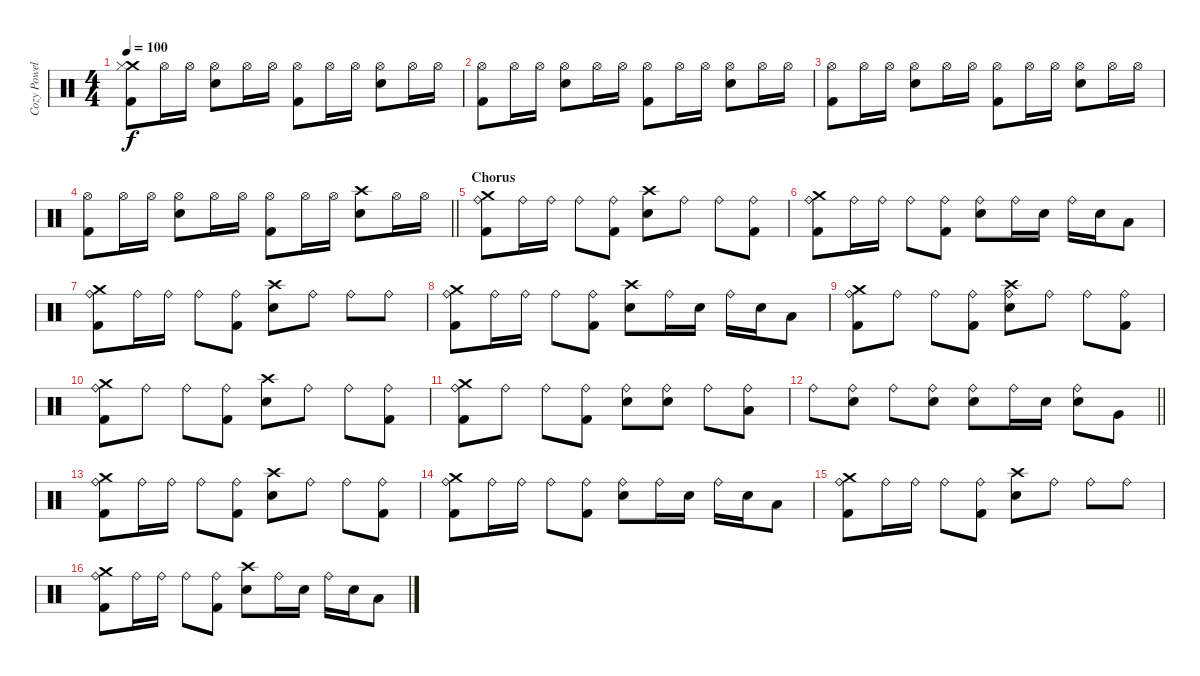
\track ("Cozy Powell " "Cozy Powel") {instrument percussion}
\staff {score}
\articulation defaults
\ts (4 4)
\tempo 100
\clef neutral
\ks c
("Crash medium (hit)" "Hi-Hat (closed)" "Kick (hit) 2").8{dy f} "Hi-Hat (open)".16 "Hi-Hat (open)".16 ("Hi-Hat (open)" "Snare (hit) 2").8 "Hi-Hat (open)".16 "Hi-Hat (open)".16 ("Hi-Hat (open)" "Kick (hit) 2").8 "Hi-Hat (open)".16 "Hi-Hat (open)".16 ("Hi-Hat (open)" "Snare (hit) 2").8 "Hi-Hat (open)".16 "Hi-Hat (open)".16 |
("Hi-Hat (open)" "Kick (hit) 2").8 "Hi-Hat (open)".16 "Hi-Hat (open)".16 ("Hi-Hat (open)" "Snare (hit) 2").8 "Hi-Hat (open)".16 "Hi-Hat (open)".16 ("Hi-Hat (open)" "Kick (hit) 2").8 "Hi-Hat (open)".16 "Hi-Hat (open)".16 ("Hi-Hat (open)" "Snare (hit) 2").8 "Hi-Hat (open)".16 "Hi-Hat (open)".16 |
("Hi-Hat (open)" "Kick (hit) 2").8 "Hi-Hat (open)".16 "Hi-Hat (open)".16 ("Hi-Hat (open)" "Snare (hit) 2").8 "Hi-Hat (open)".16 "Hi-Hat (open)".16 ("Hi-Hat (open)" "Kick (hit) 2").8 "Hi-Hat (open)".16 "Hi-Hat (open)".16 ("Hi-Hat (open)" "Snare (hit) 2").8 "Hi-Hat (open)".16 "Hi-Hat (open)".16 |
\barLineRight lightlight
("Hi-Hat (open)" "Kick (hit) 2").8 "Hi-Hat (open)".16 "Hi-Hat (open)".16 ("Hi-Hat (open)" "Snare (hit) 2").8 "Hi-Hat (open)".16 "Hi-Hat (open)".16 ("Hi-Hat (open)" "Kick (hit) 2").8 "Hi-Hat (open)".16 "Hi-Hat (open)".16 ("Crash high (hit)" "Snare (hit) 2").8 "Hi-Hat (open)".16 "Hi-Hat (open)".16 |
\section ("" "Chorus")
("Crash medium (hit)" "Ride (bell)" "Kick (hit) 2").8 "Ride (bell)".16 "Ride (bell)".16 "Ride (bell)".8 ("Ride (bell)" "Kick (hit) 2").8 ("Crash high (hit)" "Snare (hit) 2").8 "Ride (bell)".8 "Ride (bell)".8 ("Ride (bell)" "Kick (hit) 2").8 |
("Crash medium (hit)" "Ride (bell)" "Kick (hit) 2").8 "Ride (bell)".16 "Ride (bell)".16 "Ride (bell)".8 ("Ride (bell)" "Kick (hit) 2").8 ("Ride (bell)" "Snare (hit) 2").8 "Ride (bell)".16 "Snare (hit) 2".16 "Ride (bell)".16 "Snare (hit) 2".16 "Low Tom (hit)".8 |
("Crash medium (hit)" "Ride (bell)" "Kick (hit) 2").8 "Ride (bell)".16 "Ride (bell)".16 "Ride (bell)".8 ("Ride (bell)" "Kick (hit) 2").8 ("Crash high (hit)" "Snare (hit) 2").8 "Ride (bell)".8 "Ride (bell)".8 "Ride (bell)".8 |
("Crash medium (hit)" "Ride (bell)" "Kick (hit) 2").8 "Ride (bell)".16 "Ride (bell)".16 "Ride (bell)".8 ("Ride (bell)" "Kick (hit) 2").8 ("Crash high (hit)" "Snare (hit) 2").8 "Ride (bell)".16 "Snare (hit) 2".16 "Ride (bell)".16 "Snare (hit) 2".16 "Low Tom (hit)".8 |
("Crash medium (hit)" "Ride (bell)" "Kick (hit) 2").8 "Ride (bell)".8 "Ride (bell)".8 ("Ride (bell)" "Kick (hit) 2").8 ("Crash high (hit)" "Ride (bell)" "Snare (hit) 2").8 "Ride (bell)".8 "Ride (bell)".8 ("Ride (bell)" "Kick (hit) 2").8 |
("Crash medium (hit)" "Ride (bell)" "Kick (hit) 2").8 "Ride (bell)".8 "Ride (bell)".8 ("Ride (bell)" "Kick (hit) 2").8 ("Crash high (hit)" "Snare (hit) 2").8 "Ride (bell)".8 "Ride (bell)".8 ("Ride (bell)" "Kick (hit) 2").8 |
("Crash medium (hit)" "Ride (bell)" "Kick (hit) 2").8 "Ride (bell)".8 "Ride (bell)".8 ("Ride (bell)" "Kick (hit) 2").8 ("Ride (bell)" "Snare (hit) 2").8 ("Ride (bell)" "Snare (hit) 2").8 "Ride (bell)".8 ("Ride (bell)" "Low Tom (hit)").8 |
\barLineRight lightlight "Ride (bell)".8
("Ride (bell)" "Snare (hit) 2").8 "Ride (bell)".8 ("Ride (bell)" "Snare (hit) 2").8 ("Ride (bell)" "Snare (hit) 2").8 "Ride (bell)".16 "Snare (hit) 2".16 ("Ride (bell)" "Snare (hit) 2").8 "Very Low Tom (hit)".8 |
("Crash medium (hit)" "Ride (bell)" "Kick (hit) 2").8 "Ride (bell)".16 "Ride (bell)".16 "Ride (bell)".8 ("Ride (bell)" "Kick (hit) 2").8 ("Crash high (hit)" "Snare (hit) 2").8 "Ride (bell)".8 "Ride (bell)".8 ("Ride (bell)" "Kick (hit) 2").8 |
("Crash medium (hit)" "Ride (bell)" "Kick (hit) 2").8 "Ride (bell)".16 "Ride (bell)".16 "Ride (bell)".8 ("Ride (bell)" "Kick (hit) 2").8 ("Ride (bell)" "Snare (hit) 2").8 "Ride (bell)".16 "Snare (hit) 2".16 "Ride (bell)".16 "Snare (hit) 2".16 "Low Tom (hit)".8 |
("Crash medium (hit)" "Ride (bell)" "Kick (hit) 2").8 "Ride (bell)".16 "Ride (bell)".16 "Ride (bell)".8 ("Ride (bell)" "Kick (hit) 2").8 ("Crash high (hit)" "Snare (hit) 2").8 "Ride (bell)".8 "Ride (bell)".8 "Ride (bell)".8 |
("Crash medium (hit)" "Ride (bell)" "Kick (hit) 2").8 "Ride (bell)".16 "Ride (bell)".16 "Ride (bell)".8 ("Ride (bell)" "Kick (hit) 2").8 ("Crash high (hit)" "Snare (hit) 2").8 "Ride (bell)".16 "Snare (hit) 2".16 "Ride (bell)".16 "Snare (hit) 2".16 "Low Tom (hit)".8
